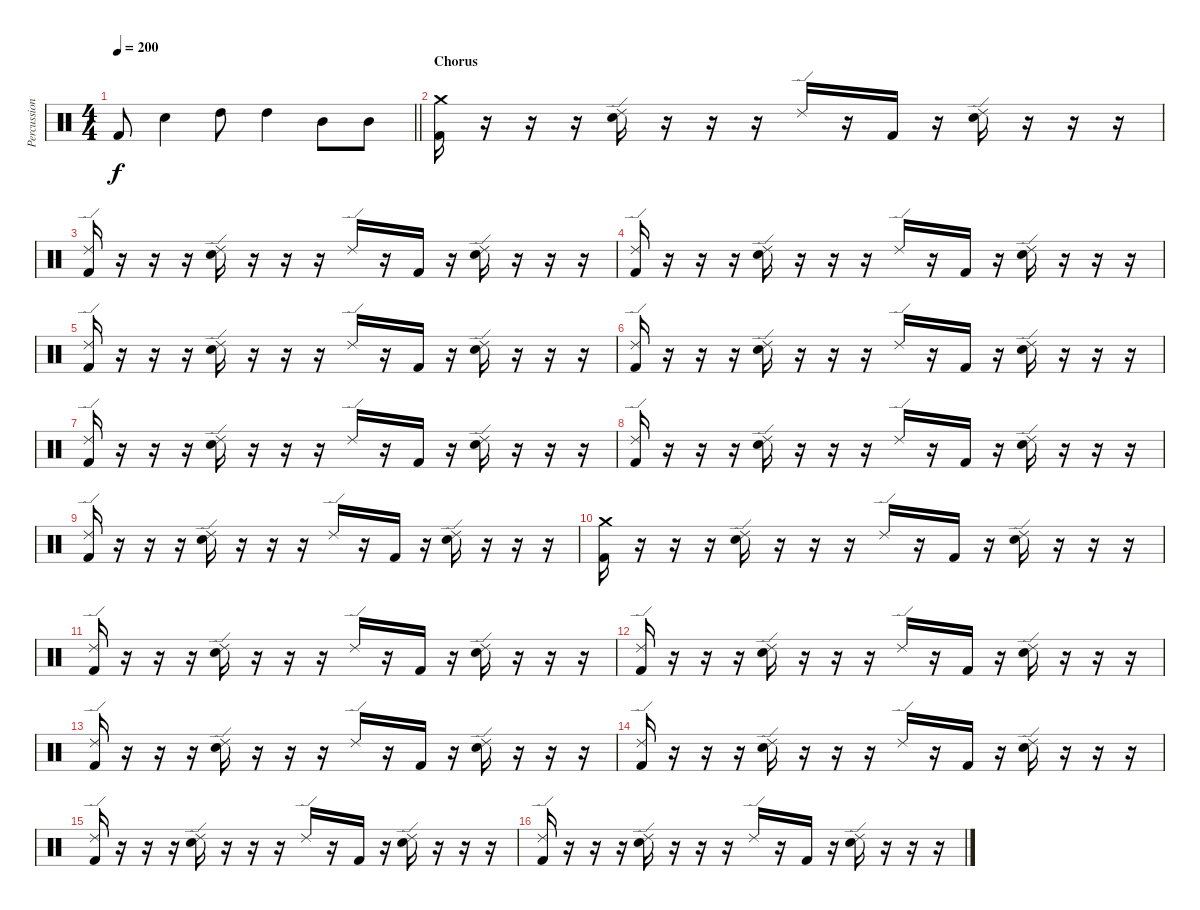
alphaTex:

\track ("Percussion" "Percussion") {instrument percussion}
\staff {score}
\articulation defaults
\ts (4 4)
\tempo 200
\clef neutral
\barLineRight lightlight
\ks c "Kick (hit) 2".8{dy f} "Electric Snare (hit)".4 "High Tom (hit)".8 "High Tom (hit)".4 "Mid Tom (hit)".8 "Mid Tom (hit)".8
|
\section ("" "Chorus")
("Crash medium (hit)" "Kick (hit) 2").16 r.16 r.16 r.16 ("Ride (edge) 2" "Electric Snare (hit)").16 r.16 r.16 r.16 "Ride (edge) 2".16 r.16 "Kick (hit) 2".16 r.16 ("Ride (edge) 2" "Electric Snare (hit)").16 r.16 r.16 r.16 |
("Ride (edge) 2" "Kick (hit) 2").16 r.16 r.16 r.16 ("Ride (edge) 2" "Electric Snare (hit)").16 r.16 r.16 r.16 "Ride (edge) 2".16 r.16 "Kick (hit) 2".16 r.16 ("Ride (edge) 2" "Electric Snare (hit)").16 r.16 r.16 r.16 |
("Ride (edge) 2" "Kick (hit) 2").16 r.16 r.16 r.16 ("Ride (edge) 2" "Electric Snare (hit)").16 r.16 r.16 r.16 "Ride (edge) 2".16 r.16 "Kick (hit) 2".16 r.16 ("Ride (edge) 2" "Electric Snare (hit)").16 r.16 r.16 r.16 |
("Ride (edge) 2" "Kick (hit) 2").16 r.16 r.16 r.16 ("Ride (edge) 2" "Electric Snare (hit)").16 r.16 r.16 r.16 "Ride (edge) 2".16 r.16 "Kick (hit) 2".16 r.16 ("Ride (edge) 2" "Electric Snare (hit)").16 r.16 r.16 r.16 |
("Ride (edge) 2" "Kick (hit) 2").16 r.16 r.16 r.16 ("Ride (edge) 2" "Electric Snare (hit)").16 r.16 r.16 r.16 "Ride (edge) 2".16 r.16 "Kick (hit) 2".16 r.16 ("Ride (edge) 2" "Electric Snare (hit)").16 r.16 r.16 r.16 |
("Ride (edge) 2" "Kick (hit) 2").16 r.16 r.16 r.16 ("Ride (edge) 2" "Electric Snare (hit)").16 r.16 r.16 r.16 "Ride (edge) 2".16 r.16 "Kick (hit) 2".16 r.16 ("Ride (edge) 2" "Electric Snare (hit)").16 r.16 r.16 r.16 |
("Ride (edge) 2" "Kick (hit) 2").16 r.16 r.16 r.16 ("Ride (edge) 2" "Electric Snare (hit)").16 r.16 r.16 r.16 "Ride (edge) 2".16 r.16 "Kick (hit) 2".16 r.16 ("Ride (edge) 2" "Electric Snare (hit)").16 r.16 r.16 r.16 |
("Ride (edge) 2" "Kick (hit) 2").16 r.16 r.16 r.16 ("Ride (edge) 2" "Electric Snare (hit)").16 r.16 r.16 r.16 "Ride (edge) 2".16 r.16 "Kick (hit) 2".16 r.16 ("Ride (edge) 2" "Electric Snare (hit)").16 r.16 r.16 r.16 |
("Crash medium (hit)" "Kick (hit) 2").16 r.16 r.16 r.16 ("Ride (edge) 2" "Electric Snare (hit)").16 r.16 r.16 r.16 "Ride (edge) 2".16 r.16 "Kick (hit) 2".16 r.16 ("Ride (edge) 2" "Electric Snare (hit)").16 r.16 r.16 r.16 |
("Ride (edge) 2" "Kick (hit) 2").16 r.16 r.16 r.16 ("Ride (edge) 2" "Electric Snare (hit)").16 r.16 r.16 r.16 "Ride (edge) 2".16 r.16 "Kick (hit) 2".16 r.16 ("Ride (edge) 2" "Electric Snare (hit)").16 r.16 r.16 r.16 |
("Ride (edge) 2" "Kick (hit) 2").16 r.16 r.16 r.16 ("Ride (edge) 2" "Electric Snare (hit)").16 r.16 r.16 r.16 "Ride (edge) 2".16 r.16 "Kick (hit) 2".16 r.16 ("Ride (edge) 2" "Electric Snare (hit)").16 r.16 r.16 r.16 |
("Ride (edge) 2" "Kick (hit) 2").16 r.16 r.16 r.16 ("Ride (edge) 2" "Electric Snare (hit)").16 r.16 r.16 r.16 "Ride (edge) 2".16 r.16 "Kick (hit) 2".16 r.16 ("Ride (edge) 2" "Electric Snare (hit)").16 r.16 r.16 r.16 |
("Ride (edge) 2" "Kick (hit) 2").16 r.16 r.16 r.16 ("Ride (edge) 2" "Electric Snare (hit)").16 r.16 r.16 r.16 "Ride (edge) 2".16 r.16 "Kick (hit) 2".16 r.16 ("Ride (edge) 2" "Electric Snare (hit)").16 r.16 r.16 r.16 |
("Ride (edge) 2" "Kick (hit) 2").16 r.16 r.16 r.16 ("Ride (edge) 2" "Electric Snare (hit)").16 r.16 r.16 r.16 "Ride (edge) 2".16 r.16 "Kick (hit) 2".16 r.16 ("Ride (edge) 2" "Electric Snare (hit)").16 r.16 r.16 r.16 |
("Ride (edge) 2" "Kick (hit) 2").16 r.16 r.16 r.16 ("Ride (edge) 2" "Electric Snare (hit)").16 r.16 r.16 r.16 "Ride (edge) 2".16 r.16 "Kick (hit) 2".16 r.16 ("Ride (edge) 2" "Electric Snare (hit)").16 r.16 r.16 r.16
